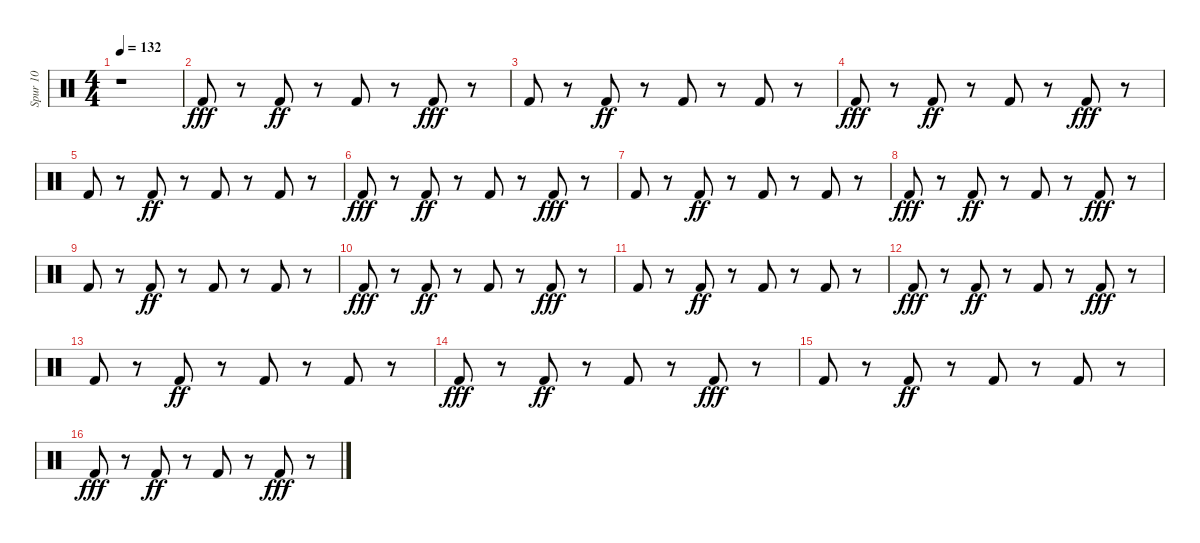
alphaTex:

\track ("Spur 10" "Spur 10") {instrument percussion}
\staff {score}
\articulation defaults
\ts (4 4)
\tempo 132
\clef neutral
\ks c
r.1{dy fff} |
"Kick (hit) 2".8 r.8 "Kick (hit) 2".8{dy ff} r.8 "Kick (hit) 2".8 r.8 "Kick (hit) 2".8{dy fff} r.8 |
"Kick (hit) 2".8 r.8 "Kick (hit) 2".8{dy ff} r.8 "Kick (hit) 2".8 r.8 "Kick (hit) 2".8 r.8 |
"Kick (hit) 2".8{dy fff} r.8 "Kick (hit) 2".8{dy ff} r.8 "Kick (hit) 2".8 r.8 "Kick (hit) 2".8{dy fff} r.8 |
"Kick (hit) 2".8 r.8 "Kick (hit) 2".8{dy ff} r.8 "Kick (hit) 2".8 r.8 "Kick (hit) 2".8 r.8 |
"Kick (hit) 2".8{dy fff} r.8 "Kick (hit) 2".8{dy ff} r.8 "Kick (hit) 2".8 r.8 "Kick (hit) 2".8{dy fff} r.8 |
"Kick (hit) 2".8 r.8 "Kick (hit) 2".8{dy ff} r.8 "Kick (hit) 2".8 r.8 "Kick (hit) 2".8 r.8 |
"Kick (hit) 2".8{dy fff} r.8 "Kick (hit) 2".8{dy ff} r.8 "Kick (hit) 2".8 r.8 "Kick (hit) 2".8{dy fff} r.8 |
"Kick (hit) 2".8 r.8 "Kick (hit) 2".8{dy ff} r.8 "Kick (hit) 2".8 r.8 "Kick (hit) 2".8 r.8 |
"Kick (hit) 2".8{dy fff} r.8 "Kick (hit) 2".8{dy ff} r.8 "Kick (hit) 2".8 r.8 "Kick (hit) 2".8{dy fff} r.8 |
"Kick (hit) 2".8 r.8 "Kick (hit) 2".8{dy ff} r.8 "Kick (hit) 2".8 r.8 "Kick (hit) 2".8 r.8 |
"Kick (hit) 2".8{dy fff} r.8 "Kick (hit) 2".8{dy ff} r.8 "Kick (hit) 2".8 r.8 "Kick (hit) 2".8{dy fff} r.8 |
"Kick (hit) 2".8 r.8 "Kick (hit) 2".8{dy ff} r.8 "Kick (hit) 2".8 r.8 "Kick (hit) 2".8 r.8 |
"Kick (hit) 2".8{dy fff} r.8 "Kick (hit) 2".8{dy ff} r.8 "Kick (hit) 2".8 r.8 "Kick (hit) 2".8{dy fff} r.8 |
"Kick (hit) 2".8 r.8 "Kick (hit) 2".8{dy ff} r.8 "Kick (hit) 2".8 r.8 "Kick (hit) 2".8 r.8 |
"Kick (hit) 2".8{dy fff} r.8 "Kick (hit) 2".8{dy ff} r.8 "Kick (hit) 2".8 r.8 "Kick (hit) 2".8{dy fff} r.8
